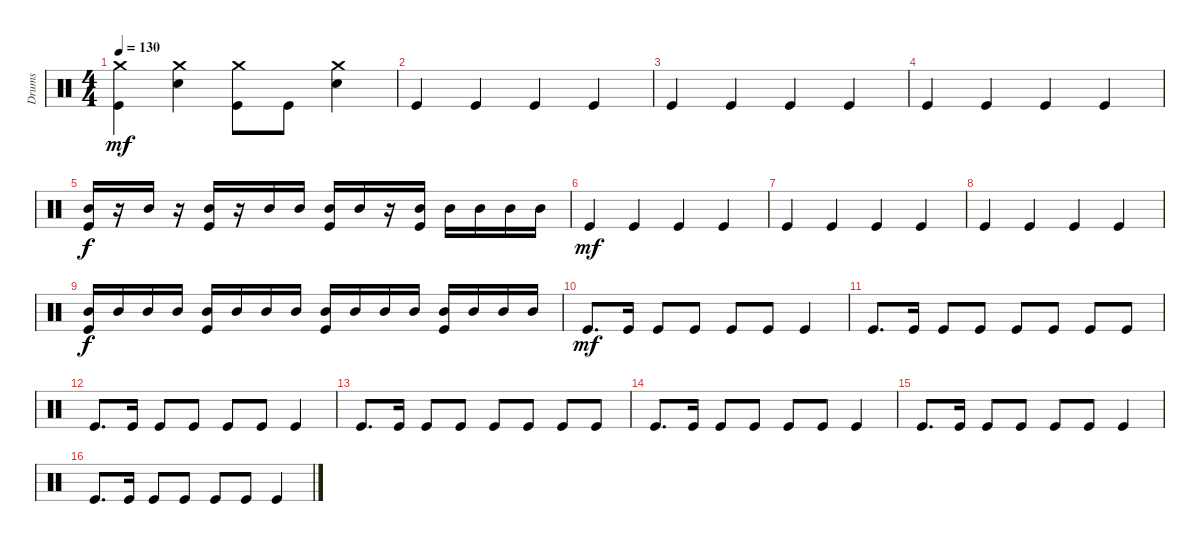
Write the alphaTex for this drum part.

\defaultSystemsLayout 4
\track ("Drumkit" "Drums") {instrument percussion}
\staff {score}
\articulation defaults
\ts (4 4)
\tempo 130
\clef neutral
\ks c
("Kick (hit)" "Crash medium (hit)").4{dy mf} ("Snare (hit) 2" "Crash medium (hit)").4 ("Kick (hit)" "Crash medium (hit)").8 "Kick (hit)".8 ("Snare (hit) 2" "Crash medium (hit)").4 |
"Kick (hit)".4 "Kick (hit)".4 "Kick (hit)".4 "Kick (hit)".4 |
"Kick (hit)".4 "Kick (hit)".4 "Kick (hit)".4 "Kick (hit)".4 |
"Kick (hit)".4 "Kick (hit)".4 "Kick (hit)".4 "Kick (hit)".4 |
("Kick (hit)" "Mid Tom (hit)").16{dy f} r.16 "Mid Tom (hit)".16 r.16 ("Mid Tom (hit)" "Kick (hit)").16 r.16 "Mid Tom (hit)".16 "Mid Tom (hit)".16 ("Mid Tom (hit)" "Kick (hit)").16 "Mid Tom (hit)".16 r.16 ("Mid Tom (hit)" "Kick (hit)").16 "Mid Tom (hit)".16 "Mid Tom (hit)".16 "Mid Tom (hit)".16 "Mid Tom (hit)".16 |
"Kick (hit)".4{dy mf} "Kick (hit)".4 "Kick (hit)".4 "Kick (hit)".4 |
"Kick (hit)".4 "Kick (hit)".4 "Kick (hit)".4 "Kick (hit)".4 |
"Kick (hit)".4 "Kick (hit)".4 "Kick (hit)".4 "Kick (hit)".4 |
("Mid Tom (hit)" "Kick (hit)").16{dy f} "Mid Tom (hit)".16 "Mid Tom (hit)".16 "Mid Tom (hit)".16 ("Mid Tom (hit)" "Kick (hit)").16 "Mid Tom (hit)".16 "Mid Tom (hit)".16 "Mid Tom (hit)".16 ("Mid Tom (hit)" "Kick (hit)").16 "Mid Tom (hit)".16 "Mid Tom (hit)".16 "Mid Tom (hit)".16 ("Mid Tom (hit)" "Kick (hit)").16 "Mid Tom (hit)".16 "Mid Tom (hit)".16 "Mid Tom (hit)".16 |
"Kick (hit)".8{d dy mf} "Kick (hit)".16 "Kick (hit)".8 "Kick (hit)".8 "Kick (hit)".8 "Kick (hit)".8 "Kick (hit)".4 |
"Kick (hit)".8{d} "Kick (hit)".16 "Kick (hit)".8 "Kick (hit)".8 "Kick (hit)".8 "Kick (hit)".8 "Kick (hit)".8 "Kick (hit)".8 |
"Kick (hit)".8{d} "Kick (hit)".16 "Kick (hit)".8 "Kick (hit)".8 "Kick (hit)".8 "Kick (hit)".8 "Kick (hit)".4 |
"Kick (hit)".8{d} "Kick (hit)".16 "Kick (hit)".8 "Kick (hit)".8 "Kick (hit)".8 "Kick (hit)".8 "Kick (hit)".8 "Kick (hit)".8 |
"Kick (hit)".8{d} "Kick (hit)".16 "Kick (hit)".8 "Kick (hit)".8 "Kick (hit)".8 "Kick (hit)".8 "Kick (hit)".4 |
"Kick (hit)".8{d} "Kick (hit)".16 "Kick (hit)".8 "Kick (hit)".8 "Kick (hit)".8 "Kick (hit)".8 "Kick (hit)".4 |
"Kick (hit)".8{d} "Kick (hit)".16 "Kick (hit)".8 "Kick (hit)".8 "Kick (hit)".8 "Kick (hit)".8 "Kick (hit)".4
